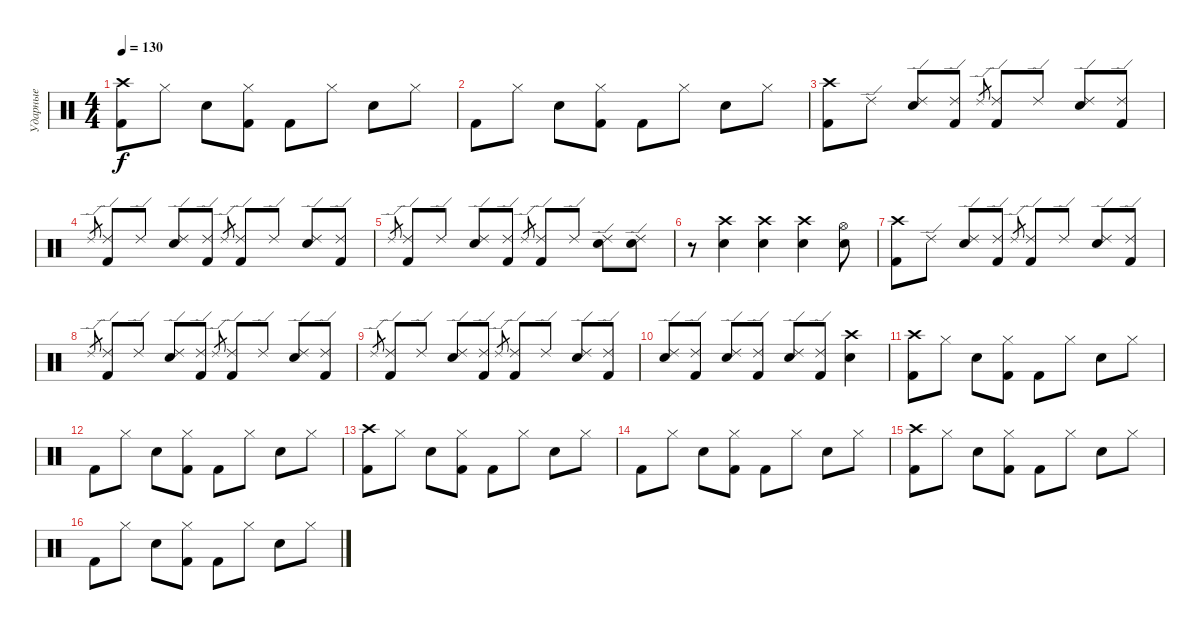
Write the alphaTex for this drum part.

\track ("Ударные" "Ударные") {instrument percussion}
\staff {score}
\articulation defaults
\ts (4 4)
\tempo 130
\clef neutral
\ks c
("Kick (hit) 2" "Crash high (hit)").8{dy f} "Hi-Hat (closed)".8 "Electric Snare (hit)".8 ("Kick (hit) 2" "Hi-Hat (closed)").8 "Kick (hit) 2".8 "Hi-Hat (closed)".8 "Electric Snare (hit)".8 "Hi-Hat (closed)".8 |
"Kick (hit) 2".8 "Hi-Hat (closed)".8 "Electric Snare (hit)".8 ("Kick (hit) 2" "Hi-Hat (closed)").8 "Kick (hit) 2".8 "Hi-Hat (closed)".8 "Electric Snare (hit)".8 "Hi-Hat (closed)".8 |
("Kick (hit) 2" "Crash high (hit)").8 "Ride (edge) 2".8 ("Electric Snare (hit)" "Ride (edge) 2").8 ("Kick (hit) 2" "Ride (edge) 2").8 "Ride (edge) 2".8{gr} ("Kick (hit) 2" "Ride (edge) 2").8 "Ride (edge) 2".8 ("Electric Snare (hit)" "Ride (edge) 2").8 ("Kick (hit) 2" "Ride (edge) 2").8 |
"Ride (edge) 2".8{gr} ("Kick (hit) 2" "Ride (edge) 2").8 "Ride (edge) 2".8 ("Electric Snare (hit)" "Ride (edge) 2").8 ("Kick (hit) 2" "Ride (edge) 2").8 "Ride (edge) 2".8{gr} ("Kick (hit) 2" "Ride (edge) 2").8 "Ride (edge) 2".8 ("Electric Snare (hit)" "Ride (edge) 2").8 ("Kick (hit) 2" "Ride (edge) 2").8 |
"Ride (edge) 2".8{gr} ("Kick (hit) 2" "Ride (edge) 2").8 "Ride (edge) 2".8 ("Electric Snare (hit)" "Ride (edge) 2").8 ("Kick (hit) 2" "Ride (edge) 2").8 "Ride (edge) 2".8{gr} ("Kick (hit) 2" "Ride (edge) 2").8 "Ride (edge) 2".8 ("Electric Snare (hit)" "Ride (edge) 2").8 ("Electric Snare (hit)" "Ride (edge) 2").8 |
r.8 ("Electric Snare (hit)" "Crash high (hit)").4 ("Electric Snare (hit)" "Crash high (hit)").4 ("Electric Snare (hit)" "Crash high (hit)").4 ("Electric Snare (hit)" "Hi-Hat (open)").8 |
("Kick (hit) 2" "Crash high (hit)").8 "Ride (edge) 2".8 ("Electric Snare (hit)" "Ride (edge) 2").8 ("Kick (hit) 2" "Ride (edge) 2").8 "Ride (edge) 2".8{gr} ("Kick (hit) 2" "Ride (edge) 2").8 "Ride (edge) 2".8 ("Electric Snare (hit)" "Ride (edge) 2").8 ("Kick (hit) 2" "Ride (edge) 2").8 |
"Ride (edge) 2".8{gr} ("Kick (hit) 2" "Ride (edge) 2").8 "Ride (edge) 2".8 ("Electric Snare (hit)" "Ride (edge) 2").8 ("Kick (hit) 2" "Ride (edge) 2").8 "Ride (edge) 2".8{gr} ("Kick (hit) 2" "Ride (edge) 2").8 "Ride (edge) 2".8 ("Electric Snare (hit)" "Ride (edge) 2").8 ("Kick (hit) 2" "Ride (edge) 2").8 |
"Ride (edge) 2".8{gr} ("Kick (hit) 2" "Ride (edge) 2").8 "Ride (edge) 2".8 ("Electric Snare (hit)" "Ride (edge) 2").8 ("Kick (hit) 2" "Ride (edge) 2").8 "Ride (edge) 2".8{gr} ("Kick (hit) 2" "Ride (edge) 2").8 "Ride (edge) 2".8 ("Electric Snare (hit)" "Ride (edge) 2").8 ("Kick (hit) 2" "Ride (edge) 2").8 |
("Electric Snare (hit)" "Ride (edge) 2").8 ("Kick (hit) 2" "Ride (edge) 2").8 ("Electric Snare (hit)" "Ride (edge) 2").8 ("Kick (hit) 2" "Ride (edge) 2").8 ("Electric Snare (hit)" "Ride (edge) 2").8 ("Kick (hit) 2" "Ride (edge) 2").8 ("Electric Snare (hit)" "Crash high (hit)").4 |
("Kick (hit) 2" "Crash high (hit)").8 "Hi-Hat (closed)".8 "Electric Snare (hit)".8 ("Kick (hit) 2" "Hi-Hat (closed)").8 "Kick (hit) 2".8 "Hi-Hat (closed)".8 "Electric Snare (hit)".8 "Hi-Hat (closed)".8 |
"Kick (hit) 2".8 "Hi-Hat (closed)".8 "Electric Snare (hit)".8 ("Kick (hit) 2" "Hi-Hat (closed)").8 "Kick (hit) 2".8 "Hi-Hat (closed)".8 "Electric Snare (hit)".8 "Hi-Hat (closed)".8 |
("Kick (hit) 2" "Crash high (hit)").8 "Hi-Hat (closed)".8 "Electric Snare (hit)".8 ("Kick (hit) 2" "Hi-Hat (closed)").8 "Kick (hit) 2".8 "Hi-Hat (closed)".8 "Electric Snare (hit)".8 "Hi-Hat (closed)".8 |
"Kick (hit) 2".8 "Hi-Hat (closed)".8 "Electric Snare (hit)".8 ("Kick (hit) 2" "Hi-Hat (closed)").8 "Kick (hit) 2".8 "Hi-Hat (closed)".8 "Electric Snare (hit)".8 "Hi-Hat (closed)".8 |
("Kick (hit) 2" "Crash high (hit)").8 "Hi-Hat (closed)".8 "Electric Snare (hit)".8 ("Kick (hit) 2" "Hi-Hat (closed)").8 "Kick (hit) 2".8 "Hi-Hat (closed)".8 "Electric Snare (hit)".8 "Hi-Hat (closed)".8 |
"Kick (hit) 2".8 "Hi-Hat (closed)".8 "Electric Snare (hit)".8 ("Kick (hit) 2" "Hi-Hat (closed)").8 "Kick (hit) 2".8 "Hi-Hat (closed)".8 "Electric Snare (hit)".8 "Hi-Hat (closed)".8
